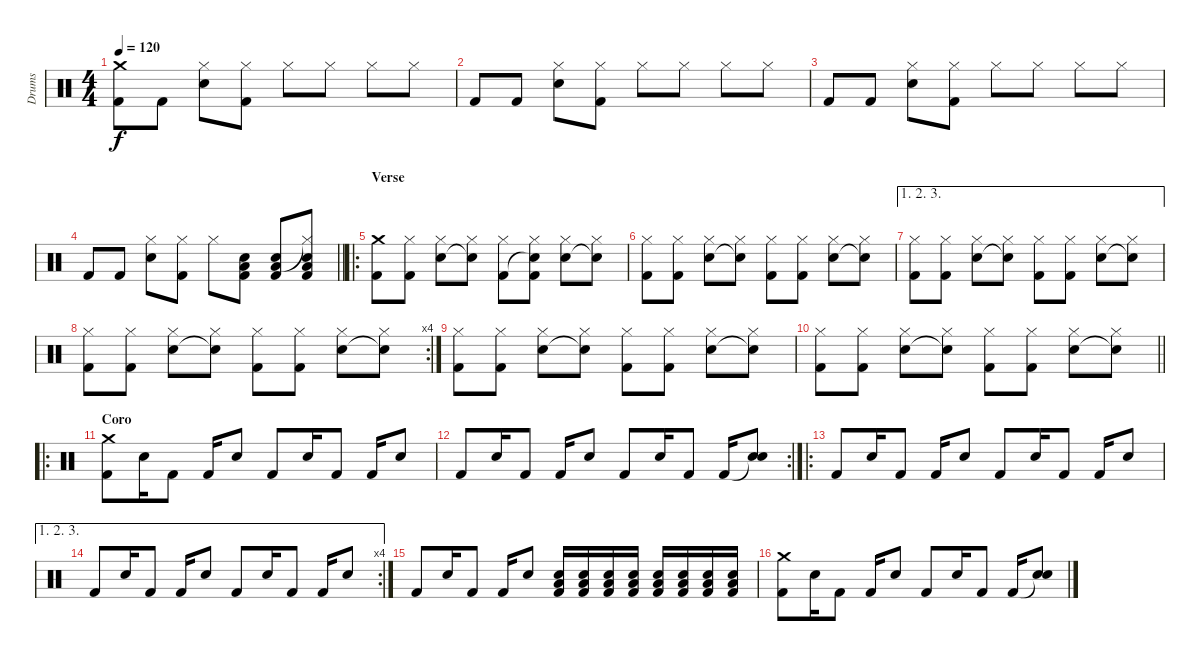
\track ("Drums" "Drums") {instrument percussion}
\staff {score}
\articulation defaults
\ts (4 4)
\tempo 120
\clef neutral
\ks c
("Crash medium (hit)" "Kick (hit) 2").8{dy f} "Kick (hit) 2".8 ("Hi-Hat (closed)" "Snare (hit) 2").8 ("Hi-Hat (closed)" "Kick (hit) 2").8 "Hi-Hat (closed)".8 "Hi-Hat (closed)".8 "Hi-Hat (closed)".8 "Hi-Hat (closed)".8 |
"Kick (hit) 2".8 "Kick (hit) 2".8 ("Hi-Hat (closed)" "Snare (hit) 2").8 ("Hi-Hat (closed)" "Kick (hit) 2").8 "Hi-Hat (closed)".8 "Hi-Hat (closed)".8 "Hi-Hat (closed)".8 "Hi-Hat (closed)".8 |
"Kick (hit) 2".8 "Kick (hit) 2".8 ("Hi-Hat (closed)" "Snare (hit) 2").8 ("Hi-Hat (closed)" "Kick (hit) 2").8 "Hi-Hat (closed)".8 "Hi-Hat (closed)".8 "Hi-Hat (closed)".8 "Hi-Hat (closed)".8 |
\barLineRight lightlight "Kick (hit) 2".8 "Kick (hit) 2".8
("Hi-Hat (closed)" "Snare (hit) 2").8 ("Hi-Hat (closed)" "Kick (hit) 2").8 "Hi-Hat (closed)".8 ("Low Floor Tom (hit)" "Electric Snare (hit)" "Kick (hit) 2").8 ("Low Floor Tom (hit)" "Electric Snare (hit)" "Kick (hit) 2").8 ("Hi-Hat (closed)"{t} "Low Floor Tom (hit)" "Electric Snare (hit)" "Kick (hit) 2").8 |
\ro
\section ("" "Verse")
("Crash medium (hit)" "Kick (hit) 2").8 ("Hi-Hat (closed)" "Kick (hit) 2").8 ("Hi-Hat (closed)" "Snare (hit) 2").8 ("Hi-Hat (closed)" "Snare (hit)"{t}).8 ("Hi-Hat (closed)" "Kick (hit) 2").8 ("Hi-Hat (closed)" "Snare (hit)"{t} "Kick (hit) 2").8 ("Hi-Hat (closed)" "Snare (hit) 2").8 ("Hi-Hat (closed)" "Snare (hit)"{t}).8 |
("Hi-Hat (closed)" "Kick (hit) 2").8 ("Hi-Hat (closed)" "Kick (hit) 2").8 ("Hi-Hat (closed)" "Snare (hit) 2").8 ("Hi-Hat (closed)" "Snare (hit)"{t}).8 ("Hi-Hat (closed)" "Kick (hit) 2").8 ("Hi-Hat (closed)" "Kick (hit) 2").8 ("Hi-Hat (closed)" "Snare (hit) 2").8 ("Hi-Hat (closed)" "Snare (hit)"{t}).8 |
\ae (1 2 3)
("Hi-Hat (closed)" "Kick (hit) 2").8 ("Hi-Hat (closed)" "Kick (hit) 2").8 ("Hi-Hat (closed)" "Snare (hit) 2").8 ("Hi-Hat (closed)" "Snare (hit)"{t}).8 ("Hi-Hat (closed)" "Kick (hit) 2").8 ("Hi-Hat (closed)" "Kick (hit) 2").8 ("Hi-Hat (closed)" "Snare (hit) 2").8 ("Hi-Hat (closed)" "Snare (hit)"{t}).8 |
\rc 4
("Hi-Hat (closed)" "Kick (hit) 2").8 ("Hi-Hat (closed)" "Kick (hit) 2").8 ("Hi-Hat (closed)" "Snare (hit) 2").8 ("Hi-Hat (closed)" "Snare (hit)"{t}).8 ("Hi-Hat (closed)" "Kick (hit) 2").8 ("Hi-Hat (closed)" "Kick (hit) 2").8 ("Hi-Hat (closed)" "Snare (hit) 2").8 ("Hi-Hat (closed)" "Snare (hit)"{t}).8 |
("Hi-Hat (closed)" "Kick (hit) 2").8 ("Hi-Hat (closed)" "Kick (hit) 2").8 ("Hi-Hat (closed)" "Snare (hit) 2").8 ("Hi-Hat (closed)" "Snare (hit)"{t}).8 ("Hi-Hat (closed)" "Kick (hit) 2").8 ("Hi-Hat (closed)" "Kick (hit) 2").8 ("Hi-Hat (closed)" "Snare (hit) 2").8 ("Hi-Hat (closed)" "Snare (hit)"{t}).8 |
\barLineRight lightlight
("Hi-Hat (closed)" "Kick (hit) 2").8 ("Hi-Hat (closed)" "Kick (hit) 2").8 ("Hi-Hat (closed)" "Snare (hit) 2").8 ("Hi-Hat (closed)" "Snare (hit)"{t}).8 ("Hi-Hat (closed)" "Kick (hit) 2").8 ("Hi-Hat (closed)" "Kick (hit) 2").8 ("Hi-Hat (closed)" "Snare (hit) 2").8 ("Hi-Hat (closed)" "Snare (hit)"{t}).8 |
\ro
\section ("" "Coro")
("Crash medium (hit)" "Kick (hit) 2").8 "Snare (hit) 2".16 "Kick (hit) 2".8 "Kick (hit) 2".16 "Snare (hit) 2".8 "Kick (hit) 2".8 "Snare (hit) 2".16 "Kick (hit) 2".8 "Kick (hit) 2".16 "Snare (hit) 2".8 |
\rc 2 "Kick (hit) 2".8 "Snare (hit) 2".16 "Kick (hit) 2".8 "Kick (hit) 2".16 "Snare (hit) 2".8 "Kick (hit) 2".8 "Snare (hit) 2".16 "Kick (hit) 2".8 "Kick (hit) 2".16
("Snare (hit)"{t} "Snare (hit) 2").8 |
\ro "Kick (hit) 2".8 "Snare (hit) 2".16 "Kick (hit) 2".8 "Kick (hit) 2".16 "Snare (hit) 2".8 "Kick (hit) 2".8 "Snare (hit) 2".16 "Kick (hit) 2".8 "Kick (hit) 2".16 "Snare (hit) 2".8
|
\ae (1 2 3)
\rc 4 "Kick (hit) 2".8 "Snare (hit) 2".16 "Kick (hit) 2".8 "Kick (hit) 2".16 "Snare (hit) 2".8 "Kick (hit) 2".8 "Snare (hit) 2".16 "Kick (hit) 2".8 "Kick (hit) 2".16 "Snare (hit) 2".8
|
"Kick (hit) 2".8 "Snare (hit) 2".16 "Kick (hit) 2".8 "Kick (hit) 2".16 "Snare (hit) 2".8 ("Electric Snare (hit)" "Low Floor Tom (hit)" "Kick (hit) 2").16 ("Electric Snare (hit)" "Low Floor Tom (hit)" "Kick (hit) 2").16 ("Electric Snare (hit)" "Low Floor Tom (hit)" "Kick (hit) 2").16 ("Electric Snare (hit)" "Low Floor Tom (hit)" "Kick (hit) 2").16 ("Electric Snare (hit)" "Low Floor Tom (hit)" "Kick (hit) 2").16 ("Electric Snare (hit)" "Low Floor Tom (hit)" "Kick (hit) 2").16 ("Electric Snare (hit)" "Low Floor Tom (hit)" "Kick (hit) 2").16 ("Electric Snare (hit)" "Low Floor Tom (hit)" "Kick (hit) 2").16 |
("Crash medium (hit)" "Kick (hit) 2").8 "Snare (hit) 2".16 "Kick (hit) 2".8 "Kick (hit) 2".16 "Snare (hit) 2".8 "Kick (hit) 2".8 "Snare (hit) 2".16 "Kick (hit) 2".8 "Kick (hit) 2".16 ("Snare (hit)"{t} "Snare (hit) 2").8
